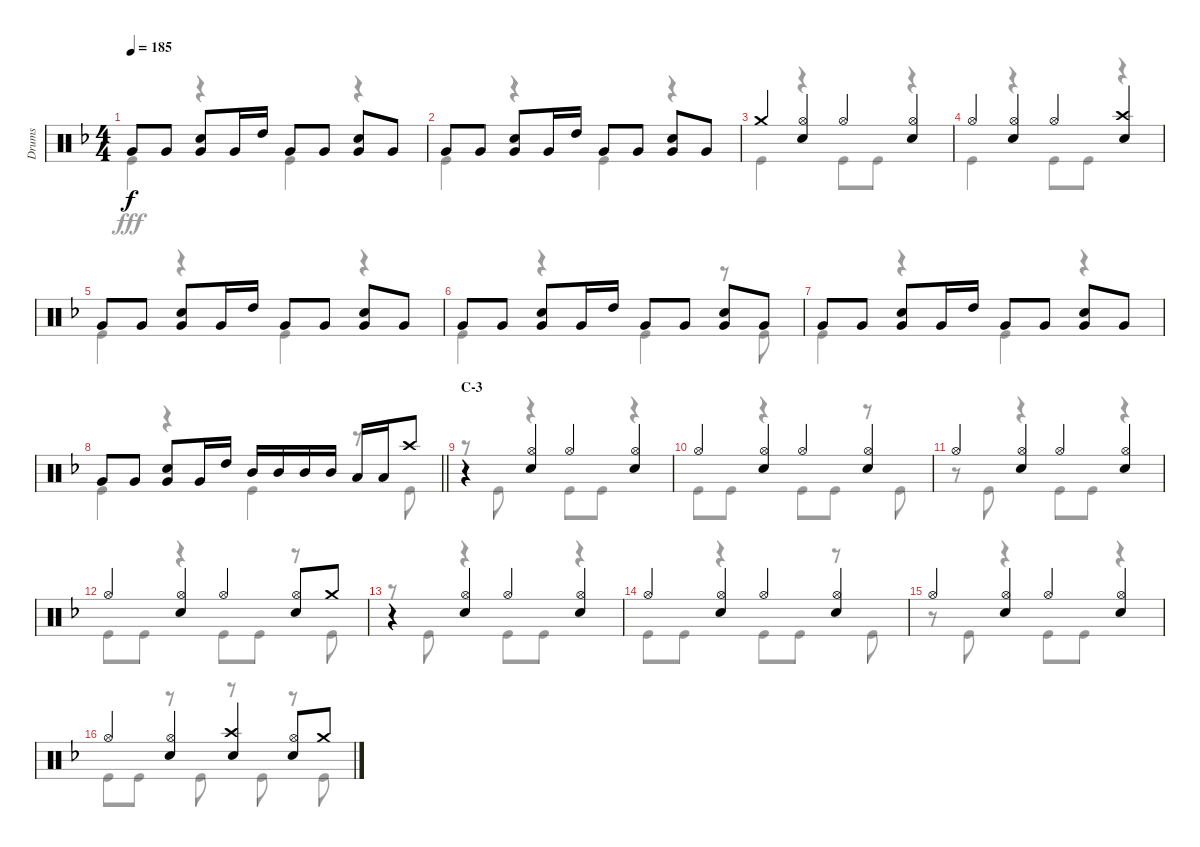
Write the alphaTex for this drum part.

\track ("Drums" "Drums") {instrument percussion}
\staff {score}
\articulation defaults
\voice
\ts (4 4)
\tempo 185
\clef neutral
\ks f "Very Low Tom (hit)".8{dy f} "Very Low Tom (hit)".8
("Snare (hit) 2" "Very Low Tom (hit)").8 "Very Low Tom (hit)".16 "High Tom (hit)".16 "Very Low Tom (hit)".8 "Very Low Tom (hit)".8 ("Snare (hit) 2" "Very Low Tom (hit)").8 "Very Low Tom (hit)".8 |
"Very Low Tom (hit)".8 "Very Low Tom (hit)".8 ("Snare (hit) 2" "Very Low Tom (hit)").8 "Very Low Tom (hit)".16 "High Tom (hit)".16 "Very Low Tom (hit)".8 "Very Low Tom (hit)".8 ("Snare (hit) 2" "Very Low Tom (hit)").8 "Very Low Tom (hit)".8 |
"Crash medium (hit)".4 ("Hi-Hat (open)" "Snare (hit) 2").4 "Hi-Hat (open)".4 ("Hi-Hat (open)" "Snare (hit) 2").4 |
"Hi-Hat (open)".4 ("Hi-Hat (open)" "Snare (hit) 2").4 "Hi-Hat (open)".4 ("Crash high (hit)" "Snare (hit) 2").4 |
"Very Low Tom (hit)".8 "Very Low Tom (hit)".8 ("Snare (hit) 2" "Very Low Tom (hit)").8 "Very Low Tom (hit)".16 "High Tom (hit)".16 "Very Low Tom (hit)".8 "Very Low Tom (hit)".8 ("Snare (hit) 2" "Very Low Tom (hit)").8 "Very Low Tom (hit)".8 |
"Very Low Tom (hit)".8 "Very Low Tom (hit)".8 ("Snare (hit) 2" "Very Low Tom (hit)").8 "Very Low Tom (hit)".16 "High Tom (hit)".16 "Very Low Tom (hit)".8 "Very Low Tom (hit)".8 ("Snare (hit) 2" "Very Low Tom (hit)").8 "Very Low Tom (hit)".8 |
"Very Low Tom (hit)".8 "Very Low Tom (hit)".8 ("Snare (hit) 2" "Very Low Tom (hit)").8 "Very Low Tom (hit)".16 "High Tom (hit)".16 "Very Low Tom (hit)".8 "Very Low Tom (hit)".8 ("Snare (hit) 2" "Very Low Tom (hit)").8 "Very Low Tom (hit)".8 |
\barLineRight lightlight "Very Low Tom (hit)".8 "Very Low Tom (hit)".8
("Snare (hit) 2" "Very Low Tom (hit)").8 "Very Low Tom (hit)".16 "High Tom (hit)".16 "Mid Tom (hit)".16 "Mid Tom (hit)".16 "Mid Tom (hit)".16 "Mid Tom (hit)".16 "Low Tom (hit)".16 "Low Tom (hit)".16 "Crash high (hit)".8 |
\section ("" "C-3")
r.4 ("Hi-Hat (open)" "Snare (hit) 2").4 "Hi-Hat (open)".4 ("Hi-Hat (open)" "Snare (hit) 2").4 |
"Hi-Hat (open)".4 ("Hi-Hat (open)" "Snare (hit) 2").4 "Hi-Hat (open)".4 ("Hi-Hat (open)" "Snare (hit) 2").4 |
"Hi-Hat (open)".4 ("Hi-Hat (open)" "Snare (hit) 2").4 "Hi-Hat (open)".4 ("Hi-Hat (open)" "Snare (hit) 2").4 |
"Hi-Hat (open)".4 ("Hi-Hat (open)" "Snare (hit) 2").4 "Hi-Hat (open)".4 ("Hi-Hat (open)" "Snare (hit) 2").8 "Crash medium (hit)".8 |
r.4 ("Hi-Hat (open)" "Snare (hit) 2").4 "Hi-Hat (open)".4 ("Hi-Hat (open)" "Snare (hit) 2").4 |
"Hi-Hat (open)".4 ("Hi-Hat (open)" "Snare (hit) 2").4 "Hi-Hat (open)".4 ("Hi-Hat (open)" "Snare (hit) 2").4 |
"Hi-Hat (open)".4 ("Hi-Hat (open)" "Snare (hit) 2").4 "Hi-Hat (open)".4 ("Hi-Hat (open)" "Snare (hit) 2").4 |
"Hi-Hat (open)".4 ("Hi-Hat (open)" "Snare (hit) 2").4 ("Crash high (hit)" "Snare (hit) 2").4 ("Hi-Hat (open)" "Snare (hit) 2").8 "Crash medium (hit)".8
\voice
\clef neutral
\ottava regular
\simile none
\ks f "Kick (hit)".4{dy fff}
r.4 "Kick (hit)".4 r.4 |
"Kick (hit)".4 r.4 "Kick (hit)".4 r.4 |
"Kick (hit)".4 r.4 "Kick (hit)".8 "Kick (hit)".8 r.4 |
"Kick (hit)".4 r.4 "Kick (hit)".8 "Kick (hit)".8 r.4 |
"Kick (hit)".4 r.4 "Kick (hit)".4 r.4 |
"Kick (hit)".4 r.4 "Kick (hit)".4 r.8 "Kick (hit)".8 |
"Kick (hit)".4 r.4 "Kick (hit)".4 r.4 |
\barLineRight lightlight "Kick (hit)".4
r.4 "Kick (hit)".4 r.8 "Kick (hit)".8 |
r.8 "Kick (hit)".8 r.4 "Kick (hit)".8 "Kick (hit)".8 r.4 |
"Kick (hit)".8 "Kick (hit)".8 r.4 "Kick (hit)".8 "Kick (hit)".8 r.8 "Kick (hit)".8 |
r.8 "Kick (hit)".8 r.4 "Kick (hit)".8 "Kick (hit)".8 r.4 |
"Kick (hit)".8 "Kick (hit)".8 r.4 "Kick (hit)".8 "Kick (hit)".8 r.8 "Kick (hit)".8 |
r.8 "Kick (hit)".8 r.4 "Kick (hit)".8 "Kick (hit)".8 r.4 |
"Kick (hit)".8 "Kick (hit)".8 r.4 "Kick (hit)".8 "Kick (hit)".8 r.8 "Kick (hit)".8 |
r.8 "Kick (hit)".8 r.4 "Kick (hit)".8 "Kick (hit)".8 r.4 |
"Kick (hit)".8 "Kick (hit)".8 r.8 "Kick (hit)".8 r.8 "Kick (hit)".8 r.8 "Kick (hit)".8
